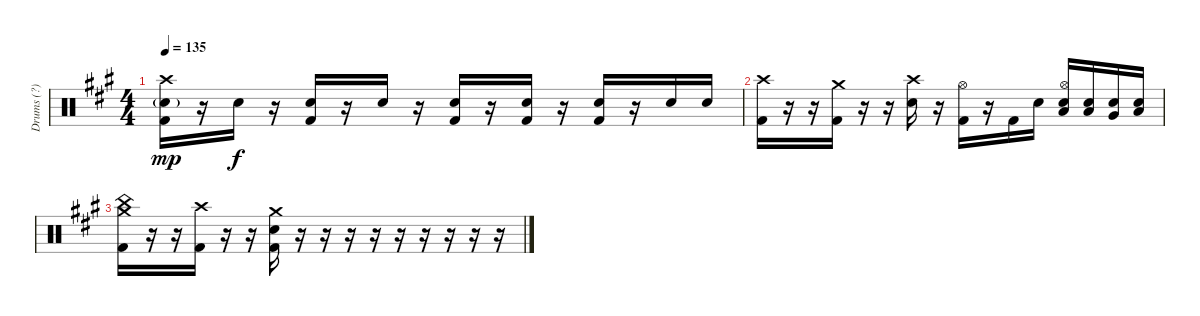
\track ("Drums (?)" "Drums (?)") {instrument percussion}
\staff {score}
\articulation defaults
\ts (4 4)
\tempo 135
\clef neutral
\ks a
("Crash high (hit)" "Electric Snare (hit)"{g} "Kick (hit) 2").16{dy mp} r.16 "Electric Snare (hit)".16{dy f} r.16 ("Electric Snare (hit)" "Kick (hit) 2").16 r.16 "Electric Snare (hit)".16 r.16 ("Electric Snare (hit)" "Kick (hit) 2").16 r.16 ("Electric Snare (hit)" "Kick (hit) 2").16 r.16 ("Electric Snare (hit)" "Kick (hit) 2").16 r.16 "Electric Snare (hit)".16 "Electric Snare (hit)".16 |
("Crash high (hit)" "Kick (hit) 2").16 r.16 r.16 ("Crash medium (hit)" "Kick (hit) 2").16 r.16 r.16 ("Crash high (hit)" "Electric Snare (hit)").16 r.16 ("Hi-Hat (open)" "Kick (hit) 2").16 r.16 "Kick (hit) 2".16 "Electric Snare (hit)".16 ("Hi-Hat (open)" "Low Tom (hit)" "Electric Snare (hit)").16 ("Low Tom (hit)" "Electric Snare (hit)").16 ("Very Low Tom (hit)" "Electric Snare (hit)").16 ("Low Floor Tom (hit)" "Electric Snare (hit)").16 |
("Crash medium (hit)" "China (hit)" "Kick (hit) 2").16 r.16 r.16 ("Crash high (hit)" "Kick (hit) 2").16 r.16 r.16 ("Crash medium (hit)" "Electric Snare (hit)" "Kick (hit) 2").16 r.16 r.16 r.16 r.16 r.16 r.16 r.16 r.16 r.16
